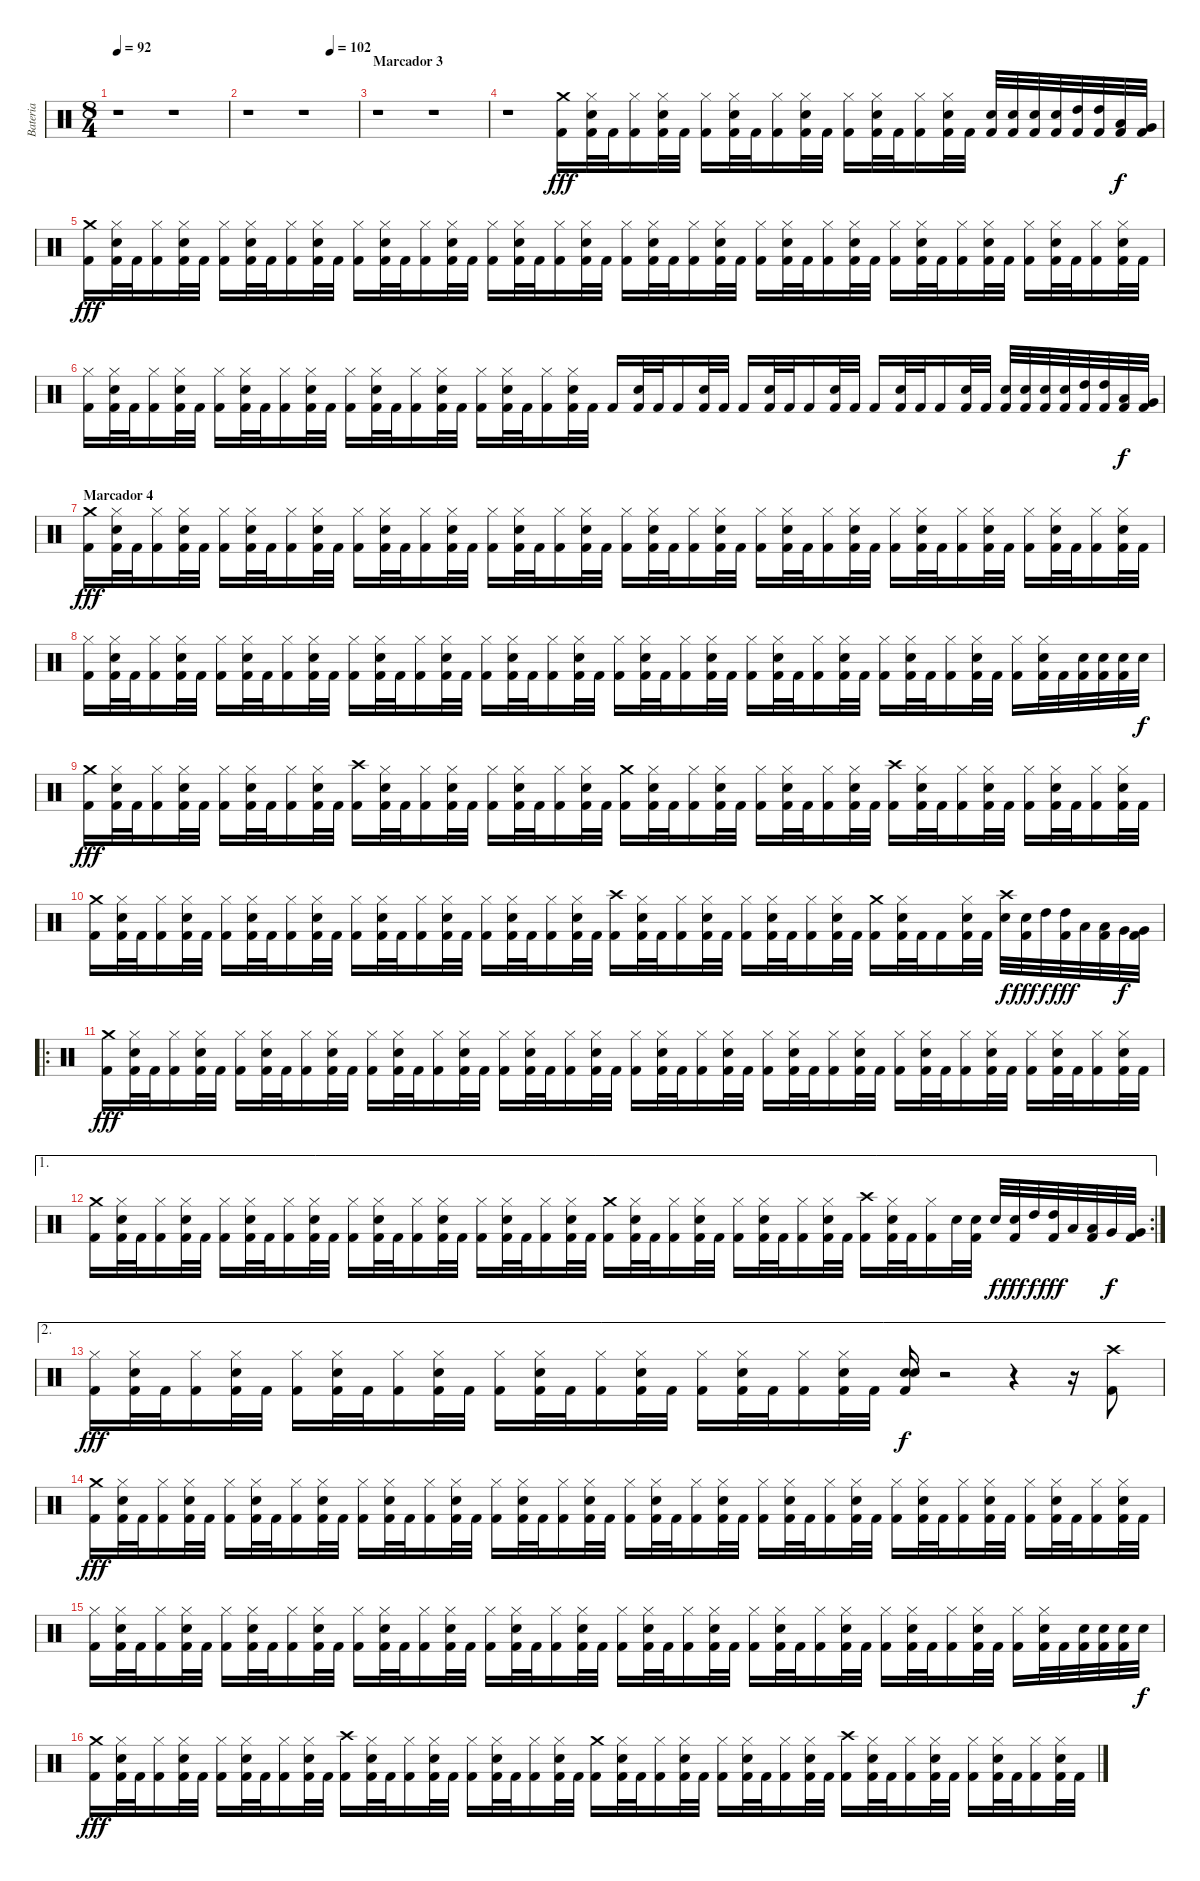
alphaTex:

\track ("Bateria" "Bateria") {instrument percussion}
\staff {score}
\articulation defaults
\ts (8 4)
\tempo 92
\clef neutral
\ks c
r.1{dy fff} r.1 |
\tempo (102 0.75)
r.1 r.1 |
\section ("" "Marcador 3")
r.1 r.1 |
r.1 ("Crash medium (hit)" "Kick (hit) 2").16 ("Hi-Hat (closed)" "Electric Snare (hit)" "Kick (hit) 2").32 "Kick (hit) 2".32 ("Hi-Hat (closed)" "Kick (hit) 2").16 ("Hi-Hat (closed)" "Electric Snare (hit)" "Kick (hit) 2").32 "Kick (hit) 2".32 ("Hi-Hat (closed)" "Kick (hit) 2").16 ("Hi-Hat (closed)" "Electric Snare (hit)" "Kick (hit) 2").32 "Kick (hit) 2".32 ("Hi-Hat (closed)" "Kick (hit) 2").16 ("Hi-Hat (closed)" "Electric Snare (hit)" "Kick (hit) 2").32 "Kick (hit) 2".32 ("Hi-Hat (closed)" "Kick (hit) 2").16 ("Hi-Hat (closed)" "Electric Snare (hit)" "Kick (hit) 2").32 "Kick (hit) 2".32 ("Hi-Hat (closed)" "Kick (hit) 2").16 ("Hi-Hat (closed)" "Electric Snare (hit)" "Kick (hit) 2").32 "Kick (hit) 2".32 ("Electric Snare (hit)" "Kick (hit) 2").32 ("Electric Snare (hit)" "Kick (hit) 2").32 ("Electric Snare (hit)" "Kick (hit) 2").32 ("Electric Snare (hit)" "Kick (hit) 2").32 ("High Tom (hit)" "Kick (hit) 2").32 ("High Tom (hit)" "Kick (hit) 2").32 ("Low Tom (hit)" "Kick (hit) 2").32{dy f} ("Very Low Tom (hit)" "Kick (hit) 2").32 |
("Crash medium (hit)" "Kick (hit) 2").16{dy fff} ("Hi-Hat (closed)" "Electric Snare (hit)" "Kick (hit) 2").32 "Kick (hit) 2".32 ("Hi-Hat (closed)" "Kick (hit) 2").16 ("Hi-Hat (closed)" "Electric Snare (hit)" "Kick (hit) 2").32 "Kick (hit) 2".32 ("Hi-Hat (closed)" "Kick (hit) 2").16 ("Hi-Hat (closed)" "Electric Snare (hit)" "Kick (hit) 2").32 "Kick (hit) 2".32 ("Hi-Hat (closed)" "Kick (hit) 2").16 ("Hi-Hat (closed)" "Electric Snare (hit)" "Kick (hit) 2").32 "Kick (hit) 2".32 ("Hi-Hat (closed)" "Kick (hit) 2").16 ("Hi-Hat (closed)" "Electric Snare (hit)" "Kick (hit) 2").32 "Kick (hit) 2".32 ("Hi-Hat (closed)" "Kick (hit) 2").16 ("Hi-Hat (closed)" "Electric Snare (hit)" "Kick (hit) 2").32 "Kick (hit) 2".32 ("Hi-Hat (closed)" "Kick (hit) 2").16 ("Hi-Hat (closed)" "Electric Snare (hit)" "Kick (hit) 2").32 "Kick (hit) 2".32 ("Hi-Hat (closed)" "Kick (hit) 2").16 ("Hi-Hat (closed)" "Electric Snare (hit)" "Kick (hit) 2").32 "Kick (hit) 2".32 ("Hi-Hat (closed)" "Kick (hit) 2").16 ("Hi-Hat (closed)" "Electric Snare (hit)" "Kick (hit) 2").32 "Kick (hit) 2".32 ("Hi-Hat (closed)" "Kick (hit) 2").16 ("Hi-Hat (closed)" "Electric Snare (hit)" "Kick (hit) 2").32 "Kick (hit) 2".32 ("Hi-Hat (closed)" "Kick (hit) 2").16 ("Hi-Hat (closed)" "Electric Snare (hit)" "Kick (hit) 2").32 "Kick (hit) 2".32 ("Hi-Hat (closed)" "Kick (hit) 2").16 ("Hi-Hat (closed)" "Electric Snare (hit)" "Kick (hit) 2").32 "Kick (hit) 2".32 ("Hi-Hat (closed)" "Kick (hit) 2").16 ("Hi-Hat (closed)" "Electric Snare (hit)" "Kick (hit) 2").32 "Kick (hit) 2".32 ("Hi-Hat (closed)" "Kick (hit) 2").16 ("Hi-Hat (closed)" "Electric Snare (hit)" "Kick (hit) 2").32 "Kick (hit) 2".32 ("Hi-Hat (closed)" "Kick (hit) 2").16 ("Hi-Hat (closed)" "Electric Snare (hit)" "Kick (hit) 2").32 "Kick (hit) 2".32 ("Hi-Hat (closed)" "Kick (hit) 2").16 ("Hi-Hat (closed)" "Electric Snare (hit)" "Kick (hit) 2").32 "Kick (hit) 2".32 |
("Hi-Hat (closed)" "Kick (hit) 2").16 ("Hi-Hat (closed)" "Electric Snare (hit)" "Kick (hit) 2").32 "Kick (hit) 2".32 ("Hi-Hat (closed)" "Kick (hit) 2").16 ("Hi-Hat (closed)" "Electric Snare (hit)" "Kick (hit) 2").32 "Kick (hit) 2".32 ("Hi-Hat (closed)" "Kick (hit) 2").16 ("Hi-Hat (closed)" "Electric Snare (hit)" "Kick (hit) 2").32 "Kick (hit) 2".32 ("Hi-Hat (closed)" "Kick (hit) 2").16 ("Hi-Hat (closed)" "Electric Snare (hit)" "Kick (hit) 2").32 "Kick (hit) 2".32 ("Hi-Hat (closed)" "Kick (hit) 2").16 ("Hi-Hat (closed)" "Electric Snare (hit)" "Kick (hit) 2").32 "Kick (hit) 2".32 ("Hi-Hat (closed)" "Kick (hit) 2").16 ("Hi-Hat (closed)" "Electric Snare (hit)" "Kick (hit) 2").32 "Kick (hit) 2".32 ("Hi-Hat (closed)" "Kick (hit) 2").16 ("Hi-Hat (closed)" "Electric Snare (hit)" "Kick (hit) 2").32 "Kick (hit) 2".32 ("Hi-Hat (closed)" "Kick (hit) 2").16 ("Hi-Hat (closed)" "Electric Snare (hit)" "Kick (hit) 2").32 "Kick (hit) 2".32 "Kick (hit) 2".16 ("Electric Snare (hit)" "Kick (hit) 2").32 "Kick (hit) 2".32 "Kick (hit) 2".16 ("Electric Snare (hit)" "Kick (hit) 2").32 "Kick (hit) 2".32 "Kick (hit) 2".16 ("Electric Snare (hit)" "Kick (hit) 2").32 "Kick (hit) 2".32 "Kick (hit) 2".16 ("Electric Snare (hit)" "Kick (hit) 2").32 "Kick (hit) 2".32 "Kick (hit) 2".16 ("Electric Snare (hit)" "Kick (hit) 2").32 "Kick (hit) 2".32 "Kick (hit) 2".16 ("Electric Snare (hit)" "Kick (hit) 2").32 "Kick (hit) 2".32 ("Electric Snare (hit)" "Kick (hit) 2").32 ("Electric Snare (hit)" "Kick (hit) 2").32 ("Electric Snare (hit)" "Kick (hit) 2").32 ("Electric Snare (hit)" "Kick (hit) 2").32 ("High Tom (hit)" "Kick (hit) 2").32 ("High Tom (hit)" "Kick (hit) 2").32 ("Low Tom (hit)" "Kick (hit) 2").32{dy f} ("Very Low Tom (hit)" "Kick (hit) 2").32 |
\section ("" "Marcador 4")
("Crash medium (hit)" "Kick (hit) 2").16{dy fff} ("Hi-Hat (closed)" "Electric Snare (hit)" "Kick (hit) 2").32 "Kick (hit) 2".32 ("Hi-Hat (closed)" "Kick (hit) 2").16 ("Hi-Hat (closed)" "Electric Snare (hit)" "Kick (hit) 2").32 "Kick (hit) 2".32 ("Hi-Hat (closed)" "Kick (hit) 2").16 ("Hi-Hat (closed)" "Electric Snare (hit)" "Kick (hit) 2").32 "Kick (hit) 2".32 ("Hi-Hat (closed)" "Kick (hit) 2").16 ("Hi-Hat (closed)" "Electric Snare (hit)" "Kick (hit) 2").32 "Kick (hit) 2".32 ("Hi-Hat (closed)" "Kick (hit) 2").16 ("Hi-Hat (closed)" "Electric Snare (hit)" "Kick (hit) 2").32 "Kick (hit) 2".32 ("Hi-Hat (closed)" "Kick (hit) 2").16 ("Hi-Hat (closed)" "Electric Snare (hit)" "Kick (hit) 2").32 "Kick (hit) 2".32 ("Hi-Hat (closed)" "Kick (hit) 2").16 ("Hi-Hat (closed)" "Electric Snare (hit)" "Kick (hit) 2").32 "Kick (hit) 2".32 ("Hi-Hat (closed)" "Kick (hit) 2").16 ("Hi-Hat (closed)" "Electric Snare (hit)" "Kick (hit) 2").32 "Kick (hit) 2".32 ("Hi-Hat (closed)" "Kick (hit) 2").16 ("Hi-Hat (closed)" "Electric Snare (hit)" "Kick (hit) 2").32 "Kick (hit) 2".32 ("Hi-Hat (closed)" "Kick (hit) 2").16 ("Hi-Hat (closed)" "Electric Snare (hit)" "Kick (hit) 2").32 "Kick (hit) 2".32 ("Hi-Hat (closed)" "Kick (hit) 2").16 ("Hi-Hat (closed)" "Electric Snare (hit)" "Kick (hit) 2").32 "Kick (hit) 2".32 ("Hi-Hat (closed)" "Kick (hit) 2").16 ("Hi-Hat (closed)" "Electric Snare (hit)" "Kick (hit) 2").32 "Kick (hit) 2".32 ("Hi-Hat (closed)" "Kick (hit) 2").16 ("Hi-Hat (closed)" "Electric Snare (hit)" "Kick (hit) 2").32 "Kick (hit) 2".32 ("Hi-Hat (closed)" "Kick (hit) 2").16 ("Hi-Hat (closed)" "Electric Snare (hit)" "Kick (hit) 2").32 "Kick (hit) 2".32 ("Hi-Hat (closed)" "Kick (hit) 2").16 ("Hi-Hat (closed)" "Electric Snare (hit)" "Kick (hit) 2").32 "Kick (hit) 2".32 ("Hi-Hat (closed)" "Kick (hit) 2").16 ("Hi-Hat (closed)" "Electric Snare (hit)" "Kick (hit) 2").32 "Kick (hit) 2".32 |
("Hi-Hat (closed)" "Kick (hit) 2").16 ("Hi-Hat (closed)" "Electric Snare (hit)" "Kick (hit) 2").32 "Kick (hit) 2".32 ("Hi-Hat (closed)" "Kick (hit) 2").16 ("Hi-Hat (closed)" "Electric Snare (hit)" "Kick (hit) 2").32 "Kick (hit) 2".32 ("Hi-Hat (closed)" "Kick (hit) 2").16 ("Hi-Hat (closed)" "Electric Snare (hit)" "Kick (hit) 2").32 "Kick (hit) 2".32 ("Hi-Hat (closed)" "Kick (hit) 2").16 ("Hi-Hat (closed)" "Electric Snare (hit)" "Kick (hit) 2").32 "Kick (hit) 2".32 ("Hi-Hat (closed)" "Kick (hit) 2").16 ("Hi-Hat (closed)" "Electric Snare (hit)" "Kick (hit) 2").32 "Kick (hit) 2".32 ("Hi-Hat (closed)" "Kick (hit) 2").16 ("Hi-Hat (closed)" "Electric Snare (hit)" "Kick (hit) 2").32 "Kick (hit) 2".32 ("Hi-Hat (closed)" "Kick (hit) 2").16 ("Hi-Hat (closed)" "Electric Snare (hit)" "Kick (hit) 2").32 "Kick (hit) 2".32 ("Hi-Hat (closed)" "Kick (hit) 2").16 ("Hi-Hat (closed)" "Electric Snare (hit)" "Kick (hit) 2").32 "Kick (hit) 2".32 ("Hi-Hat (closed)" "Kick (hit) 2").16 ("Hi-Hat (closed)" "Electric Snare (hit)" "Kick (hit) 2").32 "Kick (hit) 2".32 ("Hi-Hat (closed)" "Kick (hit) 2").16 ("Hi-Hat (closed)" "Electric Snare (hit)" "Kick (hit) 2").32 "Kick (hit) 2".32 ("Hi-Hat (closed)" "Kick (hit) 2").16 ("Hi-Hat (closed)" "Electric Snare (hit)" "Kick (hit) 2").32 "Kick (hit) 2".32 ("Hi-Hat (closed)" "Kick (hit) 2").16 ("Hi-Hat (closed)" "Electric Snare (hit)" "Kick (hit) 2").32 "Kick (hit) 2".32 ("Hi-Hat (closed)" "Kick (hit) 2").16 ("Hi-Hat (closed)" "Electric Snare (hit)" "Kick (hit) 2").32 "Kick (hit) 2".32 ("Hi-Hat (closed)" "Kick (hit) 2").16 ("Hi-Hat (closed)" "Electric Snare (hit)" "Kick (hit) 2").32 "Kick (hit) 2".32 ("Hi-Hat (closed)" "Kick (hit) 2").16 ("Hi-Hat (closed)" "Electric Snare (hit)" "Kick (hit) 2").32 "Kick (hit) 2".32 ("Electric Snare (hit)" "Kick (hit) 2").32 ("Electric Snare (hit)" "Kick (hit) 2").32 ("Electric Snare (hit)" "Kick (hit) 2").32 "Electric Snare (hit)".32{dy f} |
("Crash medium (hit)" "Kick (hit) 2").16{dy fff} ("Hi-Hat (closed)" "Electric Snare (hit)" "Kick (hit) 2").32 "Kick (hit) 2".32 ("Hi-Hat (closed)" "Kick (hit) 2").16 ("Hi-Hat (closed)" "Electric Snare (hit)" "Kick (hit) 2").32 "Kick (hit) 2".32 ("Hi-Hat (closed)" "Kick (hit) 2").16 ("Hi-Hat (closed)" "Electric Snare (hit)" "Kick (hit) 2").32 "Kick (hit) 2".32 ("Hi-Hat (closed)" "Kick (hit) 2").16 ("Hi-Hat (closed)" "Electric Snare (hit)" "Kick (hit) 2").32 "Kick (hit) 2".32 ("Crash high (hit)" "Kick (hit) 2").16 ("Hi-Hat (closed)" "Electric Snare (hit)" "Kick (hit) 2").32 "Kick (hit) 2".32 ("Hi-Hat (closed)" "Kick (hit) 2").16 ("Hi-Hat (closed)" "Electric Snare (hit)" "Kick (hit) 2").32 "Kick (hit) 2".32 ("Hi-Hat (closed)" "Kick (hit) 2").16 ("Hi-Hat (closed)" "Electric Snare (hit)" "Kick (hit) 2").32 "Kick (hit) 2".32 ("Hi-Hat (closed)" "Kick (hit) 2").16 ("Hi-Hat (closed)" "Electric Snare (hit)" "Kick (hit) 2").32 "Kick (hit) 2".32 ("Crash medium (hit)" "Kick (hit) 2").16 ("Hi-Hat (closed)" "Electric Snare (hit)" "Kick (hit) 2").32 "Kick (hit) 2".32 ("Hi-Hat (closed)" "Kick (hit) 2").16 ("Hi-Hat (closed)" "Electric Snare (hit)" "Kick (hit) 2").32 "Kick (hit) 2".32 ("Hi-Hat (closed)" "Kick (hit) 2").16 ("Hi-Hat (closed)" "Electric Snare (hit)" "Kick (hit) 2").32 "Kick (hit) 2".32 ("Hi-Hat (closed)" "Kick (hit) 2").16 ("Hi-Hat (closed)" "Electric Snare (hit)" "Kick (hit) 2").32 "Kick (hit) 2".32 ("Crash high (hit)" "Kick (hit) 2").16 ("Hi-Hat (closed)" "Electric Snare (hit)" "Kick (hit) 2").32 "Kick (hit) 2".32 ("Hi-Hat (closed)" "Kick (hit) 2").16 ("Hi-Hat (closed)" "Electric Snare (hit)" "Kick (hit) 2").32 "Kick (hit) 2".32 ("Hi-Hat (closed)" "Kick (hit) 2").16 ("Hi-Hat (closed)" "Electric Snare (hit)" "Kick (hit) 2").32 "Kick (hit) 2".32 ("Hi-Hat (closed)" "Kick (hit) 2").16 ("Hi-Hat (closed)" "Electric Snare (hit)" "Kick (hit) 2").32 "Kick (hit) 2".32 |
("Crash medium (hit)" "Kick (hit) 2").16 ("Hi-Hat (closed)" "Electric Snare (hit)" "Kick (hit) 2").32 "Kick (hit) 2".32 ("Hi-Hat (closed)" "Kick (hit) 2").16 ("Hi-Hat (closed)" "Electric Snare (hit)" "Kick (hit) 2").32 "Kick (hit) 2".32 ("Hi-Hat (closed)" "Kick (hit) 2").16 ("Hi-Hat (closed)" "Electric Snare (hit)" "Kick (hit) 2").32 "Kick (hit) 2".32 ("Hi-Hat (closed)" "Kick (hit) 2").16 ("Hi-Hat (closed)" "Electric Snare (hit)" "Kick (hit) 2").32 "Kick (hit) 2".32 ("Hi-Hat (closed)" "Kick (hit) 2").16 ("Hi-Hat (closed)" "Electric Snare (hit)" "Kick (hit) 2").32 "Kick (hit) 2".32 ("Hi-Hat (closed)" "Kick (hit) 2").16 ("Hi-Hat (closed)" "Electric Snare (hit)" "Kick (hit) 2").32 "Kick (hit) 2".32 ("Hi-Hat (closed)" "Kick (hit) 2").16 ("Hi-Hat (closed)" "Electric Snare (hit)" "Kick (hit) 2").32 "Kick (hit) 2".32 ("Hi-Hat (closed)" "Kick (hit) 2").16 ("Hi-Hat (closed)" "Electric Snare (hit)" "Kick (hit) 2").32 "Kick (hit) 2".32 ("Crash high (hit)" "Kick (hit) 2").16 ("Hi-Hat (closed)" "Electric Snare (hit)" "Kick (hit) 2").32 "Kick (hit) 2".32 ("Hi-Hat (closed)" "Kick (hit) 2").16 ("Hi-Hat (closed)" "Electric Snare (hit)" "Kick (hit) 2").32 "Kick (hit) 2".32 ("Hi-Hat (closed)" "Kick (hit) 2").16 ("Hi-Hat (closed)" "Electric Snare (hit)" "Kick (hit) 2").32 "Kick (hit) 2".32 ("Hi-Hat (closed)" "Kick (hit) 2").16 ("Hi-Hat (closed)" "Electric Snare (hit)" "Kick (hit) 2").32 "Kick (hit) 2".32 ("Crash medium (hit)" "Kick (hit) 2").16 ("Hi-Hat (closed)" "Electric Snare (hit)" "Kick (hit) 2").32 "Kick (hit) 2".32 "Kick (hit) 2".16 ("Hi-Hat (closed)" "Electric Snare (hit)" "Kick (hit) 2").32 "Kick (hit) 2".32 ("Crash high (hit)" "Electric Snare (hit)").32{dy f} ("Electric Snare (hit)" "Kick (hit) 2").32{dy fff} "High Tom (hit)".32{dy f} ("High Tom (hit)" "Kick (hit) 2").32{dy fff} "Low Tom (hit)".32 ("Low Tom (hit)" "Kick (hit) 2").32 "Very Low Tom (hit)".32{dy f} ("Very Low Tom (hit)" "Kick (hit) 2").32 |
\ro
("Crash medium (hit)" "Kick (hit) 2").16{dy fff} ("Hi-Hat (closed)" "Electric Snare (hit)" "Kick (hit) 2").32 "Kick (hit) 2".32 ("Hi-Hat (closed)" "Kick (hit) 2").16 ("Hi-Hat (closed)" "Electric Snare (hit)" "Kick (hit) 2").32 "Kick (hit) 2".32 ("Hi-Hat (closed)" "Kick (hit) 2").16 ("Hi-Hat (closed)" "Electric Snare (hit)" "Kick (hit) 2").32 "Kick (hit) 2".32 ("Hi-Hat (closed)" "Kick (hit) 2").16 ("Hi-Hat (closed)" "Electric Snare (hit)" "Kick (hit) 2").32 "Kick (hit) 2".32 ("Hi-Hat (closed)" "Kick (hit) 2").16 ("Hi-Hat (closed)" "Electric Snare (hit)" "Kick (hit) 2").32 "Kick (hit) 2".32 ("Hi-Hat (closed)" "Kick (hit) 2").16 ("Hi-Hat (closed)" "Electric Snare (hit)" "Kick (hit) 2").32 "Kick (hit) 2".32 ("Hi-Hat (closed)" "Kick (hit) 2").16 ("Hi-Hat (closed)" "Electric Snare (hit)" "Kick (hit) 2").32 "Kick (hit) 2".32 ("Hi-Hat (closed)" "Kick (hit) 2").16 ("Hi-Hat (closed)" "Electric Snare (hit)" "Kick (hit) 2").32 "Kick (hit) 2".32 ("Hi-Hat (closed)" "Kick (hit) 2").16 ("Hi-Hat (closed)" "Electric Snare (hit)" "Kick (hit) 2").32 "Kick (hit) 2".32 ("Hi-Hat (closed)" "Kick (hit) 2").16 ("Hi-Hat (closed)" "Electric Snare (hit)" "Kick (hit) 2").32 "Kick (hit) 2".32 ("Hi-Hat (closed)" "Kick (hit) 2").16 ("Hi-Hat (closed)" "Electric Snare (hit)" "Kick (hit) 2").32 "Kick (hit) 2".32 ("Hi-Hat (closed)" "Kick (hit) 2").16 ("Hi-Hat (closed)" "Electric Snare (hit)" "Kick (hit) 2").32 "Kick (hit) 2".32 ("Hi-Hat (closed)" "Kick (hit) 2").16 ("Hi-Hat (closed)" "Electric Snare (hit)" "Kick (hit) 2").32 "Kick (hit) 2".32 ("Hi-Hat (closed)" "Kick (hit) 2").16 ("Hi-Hat (closed)" "Electric Snare (hit)" "Kick (hit) 2").32 "Kick (hit) 2".32 ("Hi-Hat (closed)" "Kick (hit) 2").16 ("Hi-Hat (closed)" "Electric Snare (hit)" "Kick (hit) 2").32 "Kick (hit) 2".32 ("Hi-Hat (closed)" "Kick (hit) 2").16 ("Hi-Hat (closed)" "Electric Snare (hit)" "Kick (hit) 2").32 "Kick (hit) 2".32 |
\ae 1
\rc 2
("Crash medium (hit)" "Kick (hit) 2").16 ("Hi-Hat (closed)" "Electric Snare (hit)" "Kick (hit) 2").32 "Kick (hit) 2".32 ("Hi-Hat (closed)" "Kick (hit) 2").16 ("Hi-Hat (closed)" "Electric Snare (hit)" "Kick (hit) 2").32 "Kick (hit) 2".32 ("Hi-Hat (closed)" "Kick (hit) 2").16 ("Hi-Hat (closed)" "Electric Snare (hit)" "Kick (hit) 2").32 "Kick (hit) 2".32 ("Hi-Hat (closed)" "Kick (hit) 2").16 ("Hi-Hat (closed)" "Electric Snare (hit)" "Kick (hit) 2").32 "Kick (hit) 2".32 ("Hi-Hat (closed)" "Kick (hit) 2").16 ("Hi-Hat (closed)" "Electric Snare (hit)" "Kick (hit) 2").32 "Kick (hit) 2".32 ("Hi-Hat (closed)" "Kick (hit) 2").16 ("Hi-Hat (closed)" "Electric Snare (hit)" "Kick (hit) 2").32 "Kick (hit) 2".32 ("Hi-Hat (closed)" "Kick (hit) 2").16 ("Hi-Hat (closed)" "Electric Snare (hit)" "Kick (hit) 2").32 "Kick (hit) 2".32 ("Hi-Hat (closed)" "Kick (hit) 2").16 ("Hi-Hat (closed)" "Electric Snare (hit)" "Kick (hit) 2").32 "Kick (hit) 2".32 ("Crash medium (hit)" "Kick (hit) 2").16 ("Hi-Hat (closed)" "Electric Snare (hit)" "Kick (hit) 2").32 "Kick (hit) 2".32 ("Hi-Hat (closed)" "Kick (hit) 2").16 ("Hi-Hat (closed)" "Electric Snare (hit)" "Kick (hit) 2").32 "Kick (hit) 2".32 ("Hi-Hat (closed)" "Kick (hit) 2").16 ("Hi-Hat (closed)" "Electric Snare (hit)" "Kick (hit) 2").32 "Kick (hit) 2".32 ("Hi-Hat (closed)" "Kick (hit) 2").16 ("Hi-Hat (closed)" "Electric Snare (hit)" "Kick (hit) 2").32 "Kick (hit) 2".32 ("Crash high (hit)" "Kick (hit) 2").16 ("Hi-Hat (closed)" "Electric Snare (hit)" "Kick (hit) 2").32 "Kick (hit) 2".32 ("Hi-Hat (closed)" "Kick (hit) 2").16 "Electric Snare (hit)".32 ("Electric Snare (hit)" "Kick (hit) 2").32 "Electric Snare (hit)".32{dy f} ("Electric Snare (hit)" "Kick (hit) 2").32{dy fff} "High Tom (hit)".32{dy f} ("High Tom (hit)" "Kick (hit) 2").32{dy fff} "Low Tom (hit)".32 ("Low Tom (hit)" "Kick (hit) 2").32 "Very Low Tom (hit)".32{dy f} ("Very Low Tom (hit)" "Kick (hit) 2").32 |
\ae 2
("Hi-Hat (closed)" "Kick (hit) 2").16{dy fff} ("Hi-Hat (closed)" "Electric Snare (hit)" "Kick (hit) 2").32 "Kick (hit) 2".32 ("Hi-Hat (closed)" "Kick (hit) 2").16 ("Hi-Hat (closed)" "Electric Snare (hit)" "Kick (hit) 2").32 "Kick (hit) 2".32 ("Hi-Hat (closed)" "Kick (hit) 2").16 ("Hi-Hat (closed)" "Electric Snare (hit)" "Kick (hit) 2").32 "Kick (hit) 2".32 ("Hi-Hat (closed)" "Kick (hit) 2").16 ("Hi-Hat (closed)" "Electric Snare (hit)" "Kick (hit) 2").32 "Kick (hit) 2".32 ("Hi-Hat (closed)" "Kick (hit) 2").16 ("Hi-Hat (closed)" "Electric Snare (hit)" "Kick (hit) 2").32 "Kick (hit) 2".32 ("Hi-Hat (closed)" "Kick (hit) 2").16 ("Hi-Hat (closed)" "Electric Snare (hit)" "Kick (hit) 2").32 "Kick (hit) 2".32 ("Hi-Hat (closed)" "Kick (hit) 2").16 ("Hi-Hat (closed)" "Electric Snare (hit)" "Kick (hit) 2").32 "Kick (hit) 2".32 ("Hi-Hat (closed)" "Kick (hit) 2").16 ("Hi-Hat (closed)" "Electric Snare (hit)" "Kick (hit) 2").32 "Kick (hit) 2".32 ("Electric Snare (hit)" "Electric Snare (hit)" "Kick (hit) 2").16{dy f} r.2 r.4 r.16 ("Crash high (hit)" "Kick (hit) 2").8 |
("Crash medium (hit)" "Kick (hit) 2").16{dy fff} ("Hi-Hat (closed)" "Electric Snare (hit)" "Kick (hit) 2").32 "Kick (hit) 2".32 ("Hi-Hat (closed)" "Kick (hit) 2").16 ("Hi-Hat (closed)" "Electric Snare (hit)" "Kick (hit) 2").32 "Kick (hit) 2".32 ("Hi-Hat (closed)" "Kick (hit) 2").16 ("Hi-Hat (closed)" "Electric Snare (hit)" "Kick (hit) 2").32 "Kick (hit) 2".32 ("Hi-Hat (closed)" "Kick (hit) 2").16 ("Hi-Hat (closed)" "Electric Snare (hit)" "Kick (hit) 2").32 "Kick (hit) 2".32 ("Hi-Hat (closed)" "Kick (hit) 2").16 ("Hi-Hat (closed)" "Electric Snare (hit)" "Kick (hit) 2").32 "Kick (hit) 2".32 ("Hi-Hat (closed)" "Kick (hit) 2").16 ("Hi-Hat (closed)" "Electric Snare (hit)" "Kick (hit) 2").32 "Kick (hit) 2".32 ("Hi-Hat (closed)" "Kick (hit) 2").16 ("Hi-Hat (closed)" "Electric Snare (hit)" "Kick (hit) 2").32 "Kick (hit) 2".32 ("Hi-Hat (closed)" "Kick (hit) 2").16 ("Hi-Hat (closed)" "Electric Snare (hit)" "Kick (hit) 2").32 "Kick (hit) 2".32 ("Hi-Hat (closed)" "Kick (hit) 2").16 ("Hi-Hat (closed)" "Electric Snare (hit)" "Kick (hit) 2").32 "Kick (hit) 2".32 ("Hi-Hat (closed)" "Kick (hit) 2").16 ("Hi-Hat (closed)" "Electric Snare (hit)" "Kick (hit) 2").32 "Kick (hit) 2".32 ("Hi-Hat (closed)" "Kick (hit) 2").16 ("Hi-Hat (closed)" "Electric Snare (hit)" "Kick (hit) 2").32 "Kick (hit) 2".32 ("Hi-Hat (closed)" "Kick (hit) 2").16 ("Hi-Hat (closed)" "Electric Snare (hit)" "Kick (hit) 2").32 "Kick (hit) 2".32 ("Hi-Hat (closed)" "Kick (hit) 2").16 ("Hi-Hat (closed)" "Electric Snare (hit)" "Kick (hit) 2").32 "Kick (hit) 2".32 ("Hi-Hat (closed)" "Kick (hit) 2").16 ("Hi-Hat (closed)" "Electric Snare (hit)" "Kick (hit) 2").32 "Kick (hit) 2".32 ("Hi-Hat (closed)" "Kick (hit) 2").16 ("Hi-Hat (closed)" "Electric Snare (hit)" "Kick (hit) 2").32 "Kick (hit) 2".32 ("Hi-Hat (closed)" "Kick (hit) 2").16 ("Hi-Hat (closed)" "Electric Snare (hit)" "Kick (hit) 2").32 "Kick (hit) 2".32 |
("Hi-Hat (closed)" "Kick (hit) 2").16 ("Hi-Hat (closed)" "Electric Snare (hit)" "Kick (hit) 2").32 "Kick (hit) 2".32 ("Hi-Hat (closed)" "Kick (hit) 2").16 ("Hi-Hat (closed)" "Electric Snare (hit)" "Kick (hit) 2").32 "Kick (hit) 2".32 ("Hi-Hat (closed)" "Kick (hit) 2").16 ("Hi-Hat (closed)" "Electric Snare (hit)" "Kick (hit) 2").32 "Kick (hit) 2".32 ("Hi-Hat (closed)" "Kick (hit) 2").16 ("Hi-Hat (closed)" "Electric Snare (hit)" "Kick (hit) 2").32 "Kick (hit) 2".32 ("Hi-Hat (closed)" "Kick (hit) 2").16 ("Hi-Hat (closed)" "Electric Snare (hit)" "Kick (hit) 2").32 "Kick (hit) 2".32 ("Hi-Hat (closed)" "Kick (hit) 2").16 ("Hi-Hat (closed)" "Electric Snare (hit)" "Kick (hit) 2").32 "Kick (hit) 2".32 ("Hi-Hat (closed)" "Kick (hit) 2").16 ("Hi-Hat (closed)" "Electric Snare (hit)" "Kick (hit) 2").32 "Kick (hit) 2".32 ("Hi-Hat (closed)" "Kick (hit) 2").16 ("Hi-Hat (closed)" "Electric Snare (hit)" "Kick (hit) 2").32 "Kick (hit) 2".32 ("Hi-Hat (closed)" "Kick (hit) 2").16 ("Hi-Hat (closed)" "Electric Snare (hit)" "Kick (hit) 2").32 "Kick (hit) 2".32 ("Hi-Hat (closed)" "Kick (hit) 2").16 ("Hi-Hat (closed)" "Electric Snare (hit)" "Kick (hit) 2").32 "Kick (hit) 2".32 ("Hi-Hat (closed)" "Kick (hit) 2").16 ("Hi-Hat (closed)" "Electric Snare (hit)" "Kick (hit) 2").32 "Kick (hit) 2".32 ("Hi-Hat (closed)" "Kick (hit) 2").16 ("Hi-Hat (closed)" "Electric Snare (hit)" "Kick (hit) 2").32 "Kick (hit) 2".32 ("Hi-Hat (closed)" "Kick (hit) 2").16 ("Hi-Hat (closed)" "Electric Snare (hit)" "Kick (hit) 2").32 "Kick (hit) 2".32 ("Hi-Hat (closed)" "Kick (hit) 2").16 ("Hi-Hat (closed)" "Electric Snare (hit)" "Kick (hit) 2").32 "Kick (hit) 2".32 ("Hi-Hat (closed)" "Kick (hit) 2").16 ("Hi-Hat (closed)" "Electric Snare (hit)" "Kick (hit) 2").32 "Kick (hit) 2".32 ("Electric Snare (hit)" "Kick (hit) 2").32 ("Electric Snare (hit)" "Kick (hit) 2").32 ("Electric Snare (hit)" "Kick (hit) 2").32 "Electric Snare (hit)".32{dy f} |
("Crash medium (hit)" "Kick (hit) 2").16{dy fff} ("Hi-Hat (closed)" "Electric Snare (hit)" "Kick (hit) 2").32 "Kick (hit) 2".32 ("Hi-Hat (closed)" "Kick (hit) 2").16 ("Hi-Hat (closed)" "Electric Snare (hit)" "Kick (hit) 2").32 "Kick (hit) 2".32 ("Hi-Hat (closed)" "Kick (hit) 2").16 ("Hi-Hat (closed)" "Electric Snare (hit)" "Kick (hit) 2").32 "Kick (hit) 2".32 ("Hi-Hat (closed)" "Kick (hit) 2").16 ("Hi-Hat (closed)" "Electric Snare (hit)" "Kick (hit) 2").32 "Kick (hit) 2".32 ("Crash high (hit)" "Kick (hit) 2").16 ("Hi-Hat (closed)" "Electric Snare (hit)" "Kick (hit) 2").32 "Kick (hit) 2".32 ("Hi-Hat (closed)" "Kick (hit) 2").16 ("Hi-Hat (closed)" "Electric Snare (hit)" "Kick (hit) 2").32 "Kick (hit) 2".32 ("Hi-Hat (closed)" "Kick (hit) 2").16 ("Hi-Hat (closed)" "Electric Snare (hit)" "Kick (hit) 2").32 "Kick (hit) 2".32 ("Hi-Hat (closed)" "Kick (hit) 2").16 ("Hi-Hat (closed)" "Electric Snare (hit)" "Kick (hit) 2").32 "Kick (hit) 2".32 ("Crash medium (hit)" "Kick (hit) 2").16 ("Hi-Hat (closed)" "Electric Snare (hit)" "Kick (hit) 2").32 "Kick (hit) 2".32 ("Hi-Hat (closed)" "Kick (hit) 2").16 ("Hi-Hat (closed)" "Electric Snare (hit)" "Kick (hit) 2").32 "Kick (hit) 2".32 ("Hi-Hat (closed)" "Kick (hit) 2").16 ("Hi-Hat (closed)" "Electric Snare (hit)" "Kick (hit) 2").32 "Kick (hit) 2".32 ("Hi-Hat (closed)" "Kick (hit) 2").16 ("Hi-Hat (closed)" "Electric Snare (hit)" "Kick (hit) 2").32 "Kick (hit) 2".32 ("Crash high (hit)" "Kick (hit) 2").16 ("Hi-Hat (closed)" "Electric Snare (hit)" "Kick (hit) 2").32 "Kick (hit) 2".32 ("Hi-Hat (closed)" "Kick (hit) 2").16 ("Hi-Hat (closed)" "Electric Snare (hit)" "Kick (hit) 2").32 "Kick (hit) 2".32 ("Hi-Hat (closed)" "Kick (hit) 2").16 ("Hi-Hat (closed)" "Electric Snare (hit)" "Kick (hit) 2").32 "Kick (hit) 2".32 ("Hi-Hat (closed)" "Kick (hit) 2").16 ("Hi-Hat (closed)" "Electric Snare (hit)" "Kick (hit) 2").32 "Kick (hit) 2".32
